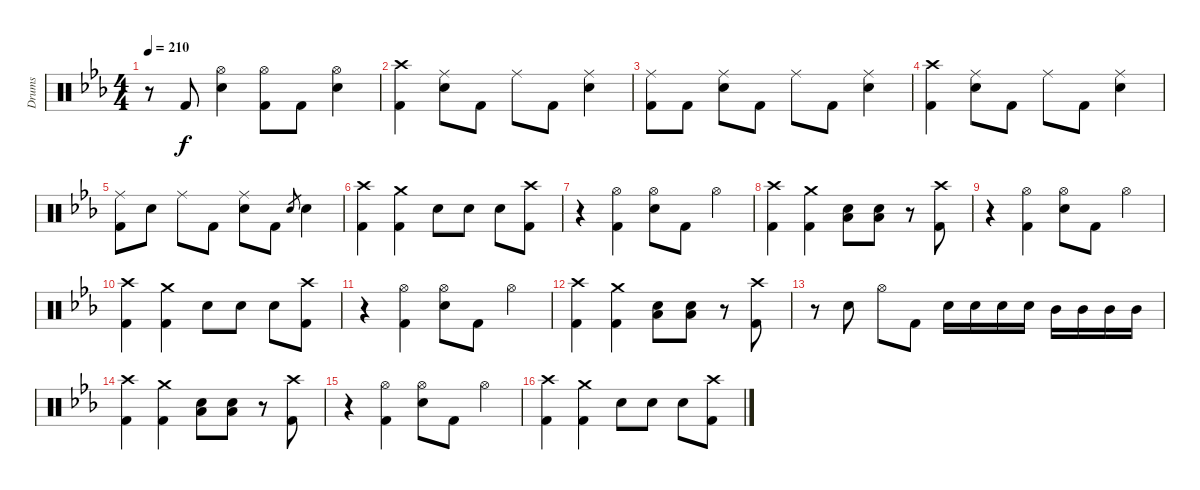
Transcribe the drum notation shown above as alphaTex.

\track ("Drums" "Drums") {instrument percussion}
\staff {score}
\articulation defaults
\ts (4 4)
\tempo 210
\clef neutral
\ks cminor
r.8{dy f} "Kick (hit) 2".8 ("Hi-Hat (open)" "Snare (hit) 2").4 ("Hi-Hat (open)" "Kick (hit) 2").8 "Kick (hit) 2".8 ("Hi-Hat (open)" "Snare (hit) 2").4 |
("Crash high (hit)" "Kick (hit) 2").4 ("Snare (hit) 2" "Ride (middle)").8 "Kick (hit) 2".8 "Ride (middle)".8 "Kick (hit) 2".8 ("Ride (middle)" "Snare (hit) 2").4 |
("Ride (middle)" "Kick (hit) 2").8 "Kick (hit) 2".8 ("Snare (hit) 2" "Ride (middle)").8 "Kick (hit) 2".8 "Ride (middle)".8 "Kick (hit) 2".8 ("Ride (middle)" "Snare (hit) 2").4 |
("Crash high (hit)" "Kick (hit) 2").4 ("Snare (hit) 2" "Ride (middle)").8 "Kick (hit) 2".8 "Ride (middle)".8 "Kick (hit) 2".8 ("Ride (middle)" "Snare (hit) 2").4 |
("Kick (hit) 2" "Ride (middle)").8 "Snare (hit) 2".8 "Ride (middle)".8 "Kick (hit) 2".8 ("Ride (middle)" "Snare (hit) 2").8 "Kick (hit) 2".8 "Snare (hit) 2".8{gr} "Snare (hit) 2".4 |
("Kick (hit) 2" "Crash high (hit)").4 ("Crash medium (hit)" "Kick (hit) 2").4 "Snare (hit) 2".8 "Snare (hit) 2".8 "Snare (hit) 2".8 ("Crash high (hit)" "Kick (hit) 2").8 |
r.4 ("Kick (hit) 2" "Hi-Hat (open)").4 ("Hi-Hat (open)" "Snare (hit) 2").8 "Kick (hit) 2".8 "Hi-Hat (open)".4 |
("Kick (hit) 2" "Crash high (hit)").4 ("Crash medium (hit)" "Kick (hit) 2").4 ("Snare (hit) 2" "Low Tom (hit)").8 ("Snare (hit) 2" "Low Tom (hit)").8 r.8 ("Crash high (hit)" "Kick (hit) 2").8 |
r.4 ("Kick (hit) 2" "Hi-Hat (open)").4 ("Hi-Hat (open)" "Snare (hit) 2").8 "Kick (hit) 2".8 "Hi-Hat (open)".4 |
("Kick (hit) 2" "Crash high (hit)").4 ("Crash medium (hit)" "Kick (hit) 2").4 "Snare (hit) 2".8 "Snare (hit) 2".8 "Snare (hit) 2".8 ("Crash high (hit)" "Kick (hit) 2").8 |
r.4 ("Kick (hit) 2" "Hi-Hat (open)").4 ("Hi-Hat (open)" "Snare (hit) 2").8 "Kick (hit) 2".8 "Hi-Hat (open)".4 |
("Kick (hit) 2" "Crash high (hit)").4 ("Crash medium (hit)" "Kick (hit) 2").4 ("Snare (hit) 2" "Low Tom (hit)").8 ("Snare (hit) 2" "Low Tom (hit)").8 r.8 ("Crash high (hit)" "Kick (hit) 2").8 |
r.8 "Snare (hit) 2".8 "Hi-Hat (open)".8 "Kick (hit) 2".8 "Snare (hit) 2".16 "Snare (hit) 2".16 "Snare (hit) 2".16 "Snare (hit) 2".16 "Mid Tom (hit)".16 "Mid Tom (hit)".16 "Mid Tom (hit)".16 "Mid Tom (hit)".16 |
("Kick (hit) 2" "Crash high (hit)").4 ("Crash medium (hit)" "Kick (hit) 2").4 ("Snare (hit) 2" "Low Tom (hit)").8 ("Snare (hit) 2" "Low Tom (hit)").8 r.8 ("Crash high (hit)" "Kick (hit) 2").8 |
r.4 ("Kick (hit) 2" "Hi-Hat (open)").4 ("Hi-Hat (open)" "Snare (hit) 2").8 "Kick (hit) 2".8 "Hi-Hat (open)".4 |
("Kick (hit) 2" "Crash high (hit)").4 ("Crash medium (hit)" "Kick (hit) 2").4 "Snare (hit) 2".8 "Snare (hit) 2".8 "Snare (hit) 2".8 ("Crash high (hit)" "Kick (hit) 2").8
